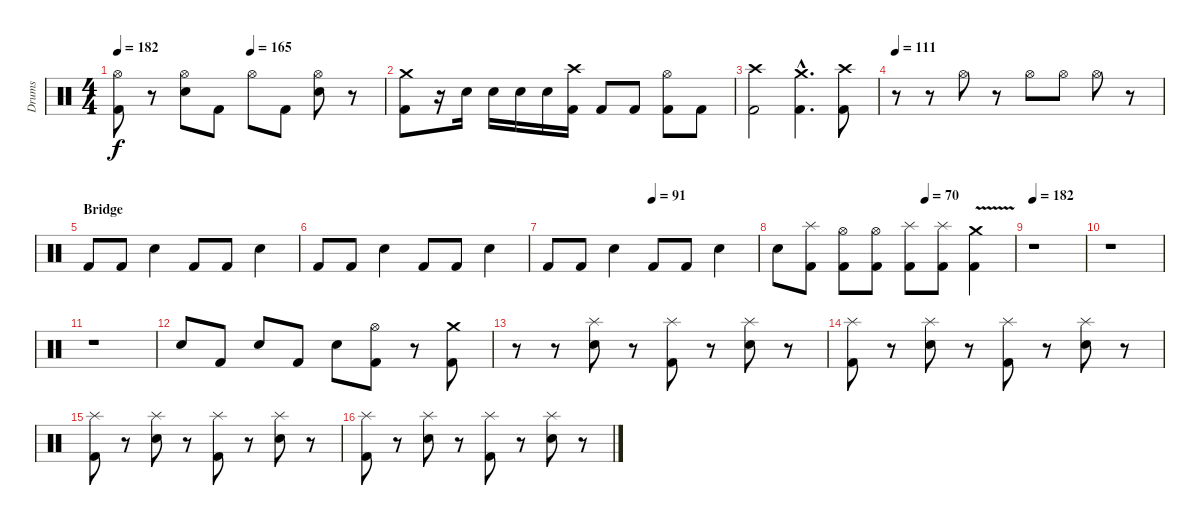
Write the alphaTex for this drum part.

\track ("Drums" "Drums") {instrument percussion}
\staff {score}
\articulation defaults
\ts (4 4)
\tempo 182
\tempo (165 0.5)
\clef neutral
\ks c
("Hi-Hat (open)" "Kick (hit) 2").8{dy f} r.8 ("Hi-Hat (open)" "Snare (hit) 2").8 "Kick (hit) 2".8 "Hi-Hat (open)".8 "Kick (hit) 2".8 ("Hi-Hat (open)" "Snare (hit) 2").8 r.8 |
("Crash medium (hit)" "Kick (hit) 2").8 r.16 "Snare (hit) 2".16 "Snare (hit) 2".16 "Snare (hit) 2".16 "Snare (hit) 2".16 ("Crash high (hit)" "Kick (hit) 2").16 "Kick (hit) 2".8 "Kick (hit) 2".8 ("Hi-Hat (open)" "Kick (hit) 2").8 "Kick (hit) 2".8 |
("Crash high (hit)" "Kick (hit) 2").2 ("Crash medium (hit)"{hac} "Kick (hit) 2"{hac}).4{d} ("Crash high (hit)" "Kick (hit) 2").8 |
\tempo 111
r.8 r.8 "Hi-Hat (open)".8 r.8 "Hi-Hat (open)".8 "Hi-Hat (open)".8 "Hi-Hat (open)".8 r.8 |
\section ("" "Bridge")
"Kick (hit) 2".8 "Kick (hit) 2".8 "Snare (hit) 2".4 "Kick (hit) 2".8 "Kick (hit) 2".8 "Snare (hit) 2".4 |
"Kick (hit) 2".8 "Kick (hit) 2".8 "Snare (hit) 2".4 "Kick (hit) 2".8 "Kick (hit) 2".8 "Snare (hit) 2".4 |
\tempo (91 0.5)
"Kick (hit) 2".8 "Kick (hit) 2".8 "Snare (hit) 2".4 "Kick (hit) 2".8 "Kick (hit) 2".8 "Snare (hit) 2".4 |
\tempo (70 0.625)
"Snare (hit) 2".8 ("Splash (hit)" "Kick (hit) 2").8 ("Hi-Hat (open)" "Kick (hit) 2").8 ("Hi-Hat (open)" "Kick (hit) 2").8 ("Splash (hit)" "Kick (hit) 2").8 ("Splash (hit)" "Kick (hit) 2").8 ("Crash medium (hit)"{v} "Kick (hit) 2").4 |
\tempo 182
r.1 |
r.1 |
r.1 |
"Snare (hit) 2".8 "Kick (hit) 2".8 "Snare (hit) 2".8 "Kick (hit) 2".8 "Snare (hit) 2".8 ("Hi-Hat (open)" "Kick (hit) 2").8 r.8 ("Crash medium (hit)" "Kick (hit) 2").8 |
r.8 r.8 ("Splash (hit)" "Snare (hit) 2").8 r.8 ("Splash (hit)" "Kick (hit) 2").8 r.8 ("Splash (hit)" "Snare (hit) 2").8 r.8 |
("Splash (hit)" "Kick (hit) 2").8 r.8 ("Splash (hit)" "Snare (hit) 2").8 r.8 ("Splash (hit)" "Kick (hit) 2").8 r.8 ("Splash (hit)" "Snare (hit) 2").8 r.8 |
("Splash (hit)" "Kick (hit) 2").8 r.8 ("Splash (hit)" "Snare (hit) 2").8 r.8 ("Splash (hit)" "Kick (hit) 2").8 r.8 ("Splash (hit)" "Snare (hit) 2").8 r.8 |
("Splash (hit)" "Kick (hit) 2").8 r.8 ("Splash (hit)" "Snare (hit) 2").8 r.8 ("Splash (hit)" "Kick (hit) 2").8 r.8 ("Splash (hit)" "Snare (hit) 2").8 r.8
